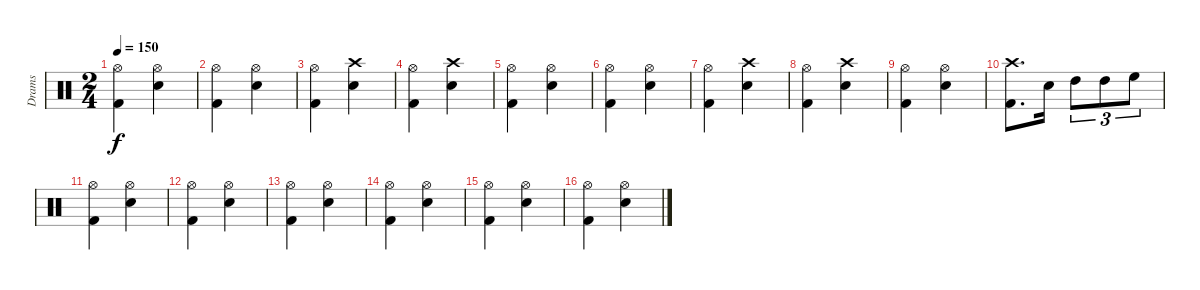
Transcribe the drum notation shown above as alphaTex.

\track ("Drams" "Drams") {instrument percussion}
\staff {score}
\articulation defaults
\ts (2 4)
\tempo 150
\clef neutral
\ks aminor
("Hi-Hat (open)" "Kick (hit) 2").4{dy f} ("Hi-Hat (open)" "Electric Snare (hit)").4 |
("Hi-Hat (open)" "Kick (hit) 2").4 ("Hi-Hat (open)" "Electric Snare (hit)").4 |
("Hi-Hat (open)" "Kick (hit) 2").4 ("Crash high (hit)" "Electric Snare (hit)").4 |
("Hi-Hat (open)" "Kick (hit) 2").4 ("Crash high (hit)" "Electric Snare (hit)").4 |
("Hi-Hat (open)" "Kick (hit) 2").4 ("Hi-Hat (open)" "Electric Snare (hit)").4 |
("Hi-Hat (open)" "Kick (hit) 2").4 ("Hi-Hat (open)" "Electric Snare (hit)").4 |
("Hi-Hat (open)" "Kick (hit) 2").4 ("Crash high (hit)" "Electric Snare (hit)").4 |
("Hi-Hat (open)" "Kick (hit) 2").4 ("Crash high (hit)" "Electric Snare (hit)").4 |
("Hi-Hat (open)" "Kick (hit) 2").4 ("Hi-Hat (open)" "Electric Snare (hit)").4 |
("Crash high (hit)" "Kick (hit) 2").8{d} "Electric Snare (hit)".16 "High Tom (hit)".8{tu (3 2)} "High Tom (hit)".8{tu (3 2)} "High Floor Tom (hit)".8{tu (3 2)} |
("Hi-Hat (open)" "Kick (hit) 2").4 ("Hi-Hat (open)" "Electric Snare (hit)").4 |
("Hi-Hat (open)" "Kick (hit) 2").4 ("Hi-Hat (open)" "Electric Snare (hit)").4 |
("Hi-Hat (open)" "Kick (hit) 2").4 ("Hi-Hat (open)" "Electric Snare (hit)").4 |
("Hi-Hat (open)" "Kick (hit) 2").4 ("Hi-Hat (open)" "Electric Snare (hit)").4 |
("Hi-Hat (open)" "Kick (hit) 2").4 ("Hi-Hat (open)" "Electric Snare (hit)").4 |
("Hi-Hat (open)" "Kick (hit) 2").4 ("Hi-Hat (open)" "Electric Snare (hit)").4
